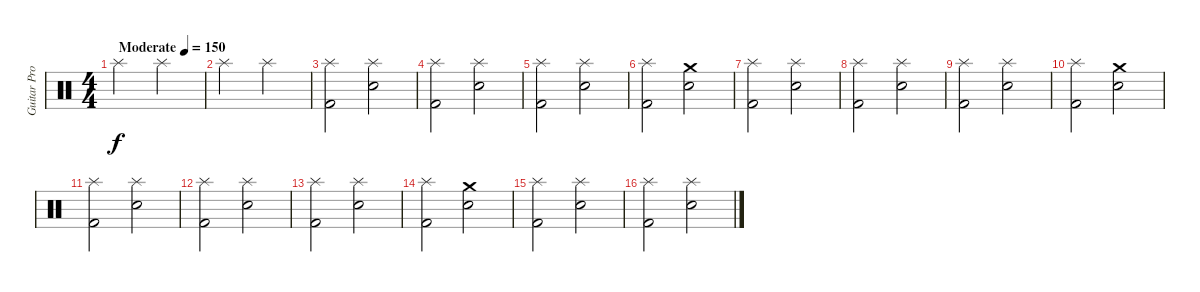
\track ("Guitar Pro" "Guitar Pro") {instrument percussion}
\staff {score}
\articulation defaults
\ts (4 4)
\tempo (150 "Moderate")
\clef neutral
\ks c "Splash (hit)".2{dy f} "Splash (hit)".2
|
"Splash (hit)".2 "Splash (hit)".2 |
("Kick (hit) 2" "Splash (hit)").2 ("Snare (hit) 2" "Splash (hit)").2 |
("Kick (hit) 2" "Splash (hit)").2 ("Snare (hit) 2" "Splash (hit)").2 |
("Kick (hit) 2" "Splash (hit)").2 ("Snare (hit) 2" "Splash (hit)").2 |
("Kick (hit) 2" "Splash (hit)").2 ("Snare (hit) 2" "Crash medium (hit)").2 |
("Kick (hit) 2" "Splash (hit)").2 ("Snare (hit) 2" "Splash (hit)").2 |
("Kick (hit) 2" "Splash (hit)").2 ("Snare (hit) 2" "Splash (hit)").2 |
("Kick (hit) 2" "Splash (hit)").2 ("Snare (hit) 2" "Splash (hit)").2 |
("Kick (hit) 2" "Splash (hit)").2 ("Snare (hit) 2" "Crash medium (hit)").2 |
("Kick (hit) 2" "Splash (hit)").2 ("Snare (hit) 2" "Splash (hit)").2 |
("Kick (hit) 2" "Splash (hit)").2 ("Snare (hit) 2" "Splash (hit)").2 |
("Kick (hit) 2" "Splash (hit)").2 ("Snare (hit) 2" "Splash (hit)").2 |
("Kick (hit) 2" "Splash (hit)").2 ("Snare (hit) 2" "Crash medium (hit)").2 |
("Kick (hit) 2" "Splash (hit)").2 ("Snare (hit) 2" "Splash (hit)").2 |
("Kick (hit) 2" "Splash (hit)").2 ("Snare (hit) 2" "Splash (hit)").2
